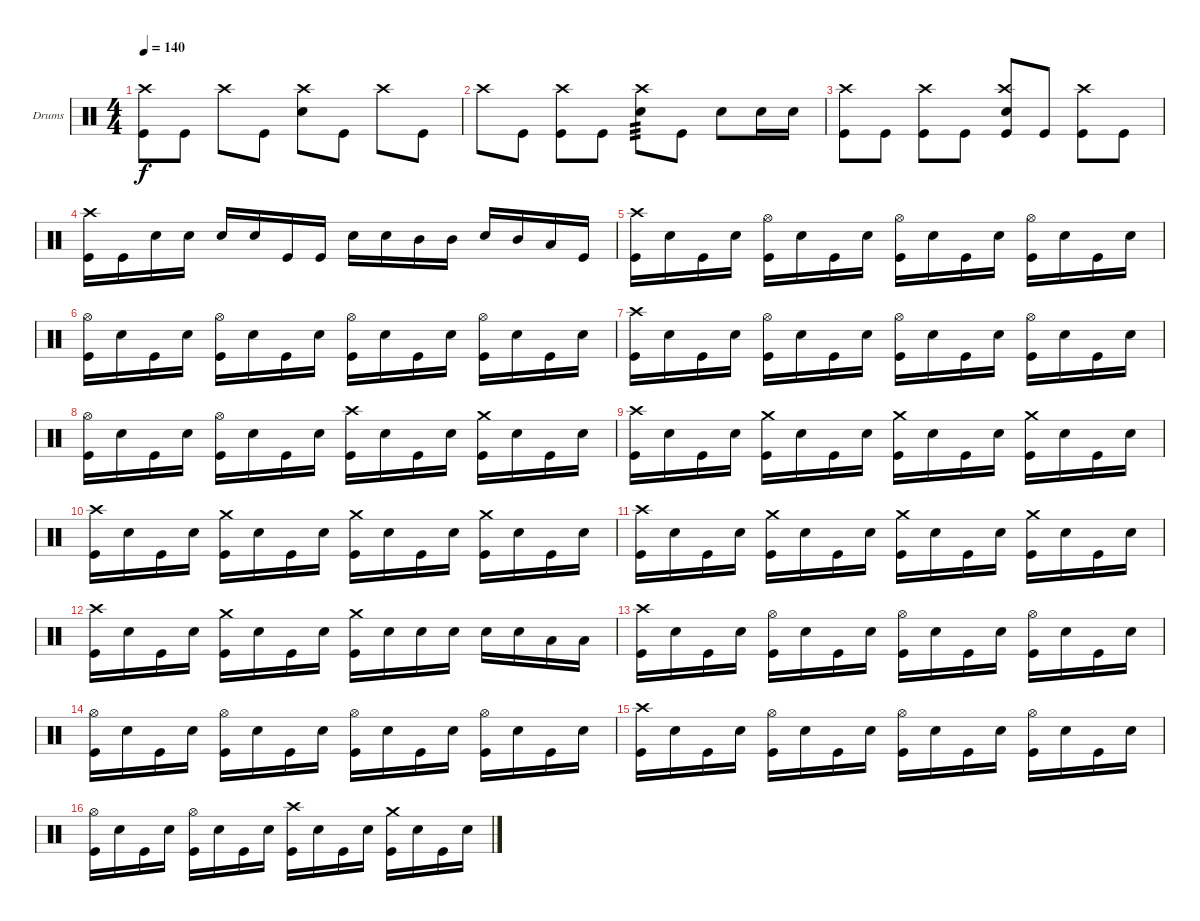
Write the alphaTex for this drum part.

\bracketExtendMode groupsimilarinstruments
\firstSystemTrackNameOrientation horizontal
\otherSystemsTrackNameOrientation horizontal
\track ("Drumkit" "Drums") {instrument percussion}
\staff {score}
\articulation defaults
\ts (4 4)
\tempo 140
\clef neutral
\ks c
("Kick (hit)" "Crash high (hit)").8{dy f} "Kick (hit)".8 "Crash high (hit)".8 "Kick (hit)".8 ("Snare (hit) 2" "Crash high (hit)").8 "Kick (hit)".8 "Crash high (hit)".8 "Kick (hit)".8 |
"Crash high (hit)".8 "Kick (hit)".8 ("Kick (hit)" "Crash high (hit)").8 "Kick (hit)".8 ("Snare (hit) 2" "Crash high (hit)").8{tp 3} "Kick (hit)".8 "Snare (hit) 2".8 "Snare (hit) 2".16 "Snare (hit) 2".16 |
("Kick (hit)" "Crash high (hit)").8 "Kick (hit)".8 ("Kick (hit)" "Crash high (hit)").8 "Kick (hit)".8 ("Kick (hit)" "Crash high (hit)" "Snare (hit) 2").8 "Kick (hit)".8 ("Kick (hit)" "Crash high (hit)").8 "Kick (hit)".8 |
("Kick (hit)" "Crash high (hit)").16 "Kick (hit)".16 "Snare (hit) 2".16 "Snare (hit) 2".16 "Snare (hit) 2".16 "Snare (hit) 2".16 "Kick (hit)".16 "Kick (hit)".16 "Snare (hit) 2".16 "Snare (hit) 2".16 "Mid Tom (hit)".16 "Mid Tom (hit)".16 "Snare (hit) 2".16 "Mid Tom (hit)".16 "Low Tom (hit)".16 "Kick (hit)".16 |
("Kick (hit)" "Crash high (hit)").16 "Snare (hit) 2".16 "Kick (hit)".16 "Snare (hit) 2".16 ("Kick (hit)" "Hi-Hat (open)").16 "Snare (hit) 2".16 "Kick (hit)".16 "Snare (hit) 2".16 ("Kick (hit)" "Hi-Hat (open)").16 "Snare (hit) 2".16 "Kick (hit)".16 "Snare (hit) 2".16 ("Kick (hit)" "Hi-Hat (open)").16 "Snare (hit) 2".16 "Kick (hit)".16 "Snare (hit) 2".16 |
("Kick (hit)" "Hi-Hat (open)").16 "Snare (hit) 2".16 "Kick (hit)".16 "Snare (hit) 2".16 ("Kick (hit)" "Hi-Hat (open)").16 "Snare (hit) 2".16 "Kick (hit)".16 "Snare (hit) 2".16 ("Kick (hit)" "Hi-Hat (open)").16 "Snare (hit) 2".16 "Kick (hit)".16 "Snare (hit) 2".16 ("Kick (hit)" "Hi-Hat (open)").16 "Snare (hit) 2".16 "Kick (hit)".16 "Snare (hit) 2".16 |
("Kick (hit)" "Crash high (hit)").16 "Snare (hit) 2".16 "Kick (hit)".16 "Snare (hit) 2".16 ("Kick (hit)" "Hi-Hat (open)").16 "Snare (hit) 2".16 "Kick (hit)".16 "Snare (hit) 2".16 ("Kick (hit)" "Hi-Hat (open)").16 "Snare (hit) 2".16 "Kick (hit)".16 "Snare (hit) 2".16 ("Kick (hit)" "Hi-Hat (open)").16 "Snare (hit) 2".16 "Kick (hit)".16 "Snare (hit) 2".16 |
("Kick (hit)" "Hi-Hat (open)").16 "Snare (hit) 2".16 "Kick (hit)".16 "Snare (hit) 2".16 ("Kick (hit)" "Hi-Hat (open)").16 "Snare (hit) 2".16 "Kick (hit)".16 "Snare (hit) 2".16 ("Kick (hit)" "Crash high (hit)").16 "Snare (hit) 2".16 "Kick (hit)".16 "Snare (hit) 2".16 ("Kick (hit)" "Crash medium (hit)").16 "Snare (hit) 2".16 "Kick (hit)".16 "Snare (hit) 2".16 |
("Kick (hit)" "Crash high (hit)").16 "Snare (hit) 2".16 "Kick (hit)".16 "Snare (hit) 2".16 ("Kick (hit)" "Crash medium (hit)").16 "Snare (hit) 2".16 "Kick (hit)".16 "Snare (hit) 2".16 ("Kick (hit)" "Crash medium (hit)").16 "Snare (hit) 2".16 "Kick (hit)".16 "Snare (hit) 2".16 ("Kick (hit)" "Crash medium (hit)").16 "Snare (hit) 2".16 "Kick (hit)".16 "Snare (hit) 2".16 |
("Kick (hit)" "Crash high (hit)").16 "Snare (hit) 2".16 "Kick (hit)".16 "Snare (hit) 2".16 ("Kick (hit)" "Crash medium (hit)").16 "Snare (hit) 2".16 "Kick (hit)".16 "Snare (hit) 2".16 ("Kick (hit)" "Crash medium (hit)").16 "Snare (hit) 2".16 "Kick (hit)".16 "Snare (hit) 2".16 ("Kick (hit)" "Crash medium (hit)").16 "Snare (hit) 2".16 "Kick (hit)".16 "Snare (hit) 2".16 |
("Kick (hit)" "Crash high (hit)").16 "Snare (hit) 2".16 "Kick (hit)".16 "Snare (hit) 2".16 ("Kick (hit)" "Crash medium (hit)").16 "Snare (hit) 2".16 "Kick (hit)".16 "Snare (hit) 2".16 ("Kick (hit)" "Crash medium (hit)").16 "Snare (hit) 2".16 "Kick (hit)".16 "Snare (hit) 2".16 ("Kick (hit)" "Crash medium (hit)").16 "Snare (hit) 2".16 "Kick (hit)".16 "Snare (hit) 2".16 |
("Kick (hit)" "Crash high (hit)").16 "Snare (hit) 2".16 "Kick (hit)".16 "Snare (hit) 2".16 ("Kick (hit)" "Crash medium (hit)").16 "Snare (hit) 2".16 "Kick (hit)".16 "Snare (hit) 2".16 ("Kick (hit)" "Crash medium (hit)").16 "Snare (hit) 2".16 "Snare (hit) 2".16 "Snare (hit) 2".16 "Snare (hit) 2".16 "Snare (hit) 2".16 "Low Tom (hit)".16 "Low Tom (hit)".16 |
("Kick (hit)" "Crash high (hit)").16 "Snare (hit) 2".16 "Kick (hit)".16 "Snare (hit) 2".16 ("Kick (hit)" "Hi-Hat (open)").16 "Snare (hit) 2".16 "Kick (hit)".16 "Snare (hit) 2".16 ("Kick (hit)" "Hi-Hat (open)").16 "Snare (hit) 2".16 "Kick (hit)".16 "Snare (hit) 2".16 ("Kick (hit)" "Hi-Hat (open)").16 "Snare (hit) 2".16 "Kick (hit)".16 "Snare (hit) 2".16 |
("Kick (hit)" "Hi-Hat (open)").16 "Snare (hit) 2".16 "Kick (hit)".16 "Snare (hit) 2".16 ("Kick (hit)" "Hi-Hat (open)").16 "Snare (hit) 2".16 "Kick (hit)".16 "Snare (hit) 2".16 ("Kick (hit)" "Hi-Hat (open)").16 "Snare (hit) 2".16 "Kick (hit)".16 "Snare (hit) 2".16 ("Kick (hit)" "Hi-Hat (open)").16 "Snare (hit) 2".16 "Kick (hit)".16 "Snare (hit) 2".16 |
("Kick (hit)" "Crash high (hit)").16 "Snare (hit) 2".16 "Kick (hit)".16 "Snare (hit) 2".16 ("Kick (hit)" "Hi-Hat (open)").16 "Snare (hit) 2".16 "Kick (hit)".16 "Snare (hit) 2".16 ("Kick (hit)" "Hi-Hat (open)").16 "Snare (hit) 2".16 "Kick (hit)".16 "Snare (hit) 2".16 ("Kick (hit)" "Hi-Hat (open)").16 "Snare (hit) 2".16 "Kick (hit)".16 "Snare (hit) 2".16 |
("Kick (hit)" "Hi-Hat (open)").16 "Snare (hit) 2".16 "Kick (hit)".16 "Snare (hit) 2".16 ("Kick (hit)" "Hi-Hat (open)").16 "Snare (hit) 2".16 "Kick (hit)".16 "Snare (hit) 2".16 ("Kick (hit)" "Crash high (hit)").16 "Snare (hit) 2".16 "Kick (hit)".16 "Snare (hit) 2".16 ("Kick (hit)" "Crash medium (hit)").16 "Snare (hit) 2".16 "Kick (hit)".16 "Snare (hit) 2".16
